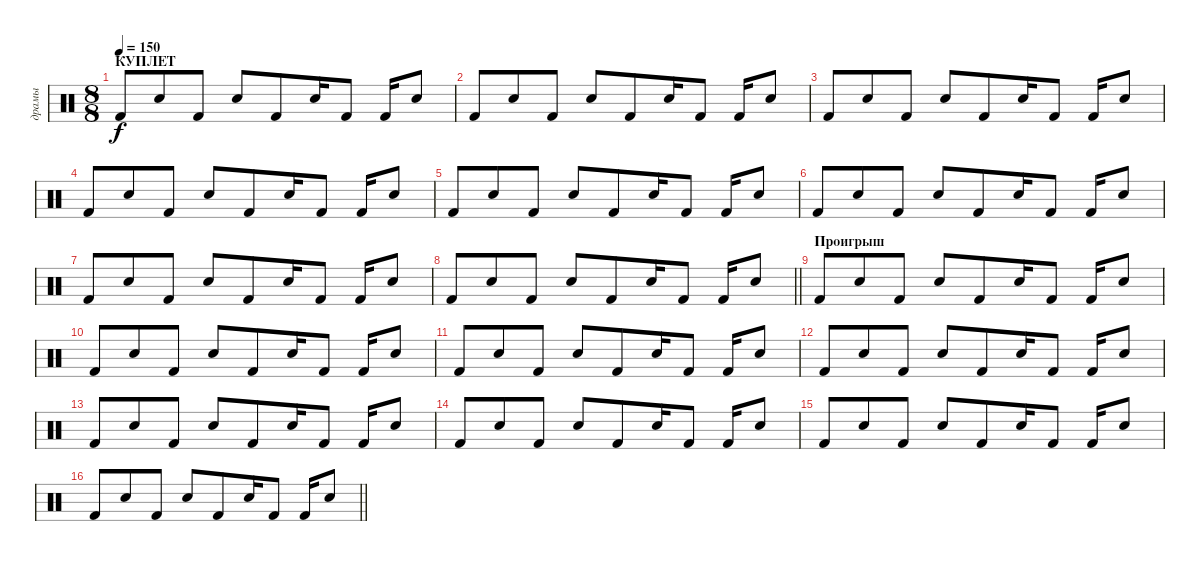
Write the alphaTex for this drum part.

\track ("драмы" "драмы") {instrument percussion}
\staff {score}
\articulation defaults
\ts (8 8)
\section ("" "КУПЛЕТ")
\tempo 150
\clef neutral
\ks c "Kick (hit) 2".8{dy f} "Electric Snare (hit)".8 "Kick (hit) 2".8 "Electric Snare (hit)".8 "Kick (hit) 2".8 "Electric Snare (hit)".16 "Kick (hit) 2".8 "Kick (hit) 2".16 "Electric Snare (hit)".8
|
"Kick (hit) 2".8 "Electric Snare (hit)".8 "Kick (hit) 2".8 "Electric Snare (hit)".8 "Kick (hit) 2".8 "Electric Snare (hit)".16 "Kick (hit) 2".8 "Kick (hit) 2".16 "Electric Snare (hit)".8 |
"Kick (hit) 2".8 "Electric Snare (hit)".8 "Kick (hit) 2".8 "Electric Snare (hit)".8 "Kick (hit) 2".8 "Electric Snare (hit)".16 "Kick (hit) 2".8 "Kick (hit) 2".16 "Electric Snare (hit)".8 |
"Kick (hit) 2".8 "Electric Snare (hit)".8 "Kick (hit) 2".8 "Electric Snare (hit)".8 "Kick (hit) 2".8 "Electric Snare (hit)".16 "Kick (hit) 2".8 "Kick (hit) 2".16 "Electric Snare (hit)".8 |
"Kick (hit) 2".8 "Electric Snare (hit)".8 "Kick (hit) 2".8 "Electric Snare (hit)".8 "Kick (hit) 2".8 "Electric Snare (hit)".16 "Kick (hit) 2".8 "Kick (hit) 2".16 "Electric Snare (hit)".8 |
"Kick (hit) 2".8 "Electric Snare (hit)".8 "Kick (hit) 2".8 "Electric Snare (hit)".8 "Kick (hit) 2".8 "Electric Snare (hit)".16 "Kick (hit) 2".8 "Kick (hit) 2".16 "Electric Snare (hit)".8 |
"Kick (hit) 2".8 "Electric Snare (hit)".8 "Kick (hit) 2".8 "Electric Snare (hit)".8 "Kick (hit) 2".8 "Electric Snare (hit)".16 "Kick (hit) 2".8 "Kick (hit) 2".16 "Electric Snare (hit)".8 |
\barLineRight lightlight "Kick (hit) 2".8 "Electric Snare (hit)".8 "Kick (hit) 2".8 "Electric Snare (hit)".8 "Kick (hit) 2".8 "Electric Snare (hit)".16 "Kick (hit) 2".8 "Kick (hit) 2".16 "Electric Snare (hit)".8
|
\section ("" "Проигрыш")
"Kick (hit) 2".8 "Electric Snare (hit)".8 "Kick (hit) 2".8 "Electric Snare (hit)".8 "Kick (hit) 2".8 "Electric Snare (hit)".16 "Kick (hit) 2".8 "Kick (hit) 2".16 "Electric Snare (hit)".8 |
"Kick (hit) 2".8 "Electric Snare (hit)".8 "Kick (hit) 2".8 "Electric Snare (hit)".8 "Kick (hit) 2".8 "Electric Snare (hit)".16 "Kick (hit) 2".8 "Kick (hit) 2".16 "Electric Snare (hit)".8 |
"Kick (hit) 2".8 "Electric Snare (hit)".8 "Kick (hit) 2".8 "Electric Snare (hit)".8 "Kick (hit) 2".8 "Electric Snare (hit)".16 "Kick (hit) 2".8 "Kick (hit) 2".16 "Electric Snare (hit)".8 |
"Kick (hit) 2".8 "Electric Snare (hit)".8 "Kick (hit) 2".8 "Electric Snare (hit)".8 "Kick (hit) 2".8 "Electric Snare (hit)".16 "Kick (hit) 2".8 "Kick (hit) 2".16 "Electric Snare (hit)".8 |
"Kick (hit) 2".8 "Electric Snare (hit)".8 "Kick (hit) 2".8 "Electric Snare (hit)".8 "Kick (hit) 2".8 "Electric Snare (hit)".16 "Kick (hit) 2".8 "Kick (hit) 2".16 "Electric Snare (hit)".8 |
"Kick (hit) 2".8 "Electric Snare (hit)".8 "Kick (hit) 2".8 "Electric Snare (hit)".8 "Kick (hit) 2".8 "Electric Snare (hit)".16 "Kick (hit) 2".8 "Kick (hit) 2".16 "Electric Snare (hit)".8 |
"Kick (hit) 2".8 "Electric Snare (hit)".8 "Kick (hit) 2".8 "Electric Snare (hit)".8 "Kick (hit) 2".8 "Electric Snare (hit)".16 "Kick (hit) 2".8 "Kick (hit) 2".16 "Electric Snare (hit)".8 |
\barLineRight lightlight "Kick (hit) 2".8 "Electric Snare (hit)".8 "Kick (hit) 2".8 "Electric Snare (hit)".8 "Kick (hit) 2".8 "Electric Snare (hit)".16 "Kick (hit) 2".8 "Kick (hit) 2".16 "Electric Snare (hit)".8
